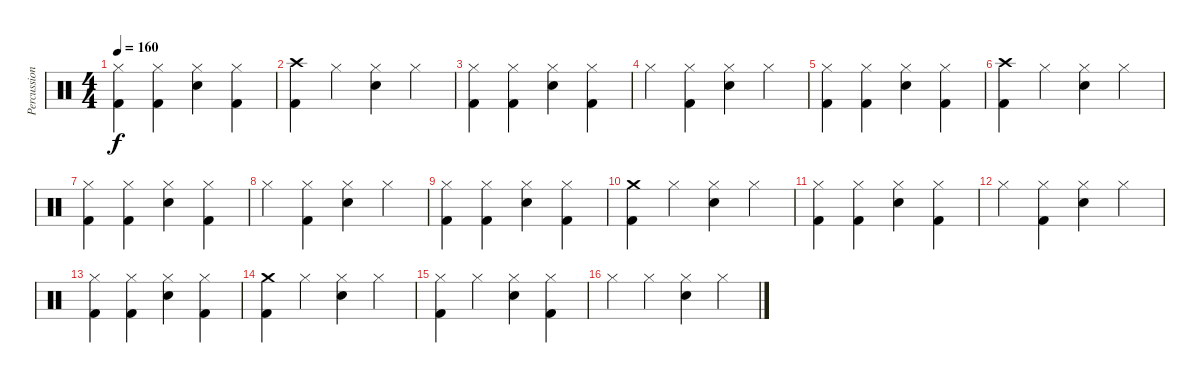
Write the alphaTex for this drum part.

\track ("Percussion" "Percussion") {instrument percussion}
\staff {score}
\articulation defaults
\ts (4 4)
\tempo 160
\clef neutral
\ks c
("Hi-Hat (closed)" "Kick (hit) 2").4{dy f} ("Hi-Hat (closed)" "Kick (hit) 2").4 ("Hi-Hat (closed)" "Snare (hit) 2").4 ("Hi-Hat (closed)" "Kick (hit) 2").4 |
("Crash high (hit)" "Kick (hit) 2").4 "Hi-Hat (closed)".4 ("Hi-Hat (closed)" "Snare (hit) 2").4 "Hi-Hat (closed)".4 |
("Hi-Hat (closed)" "Kick (hit) 2").4 ("Hi-Hat (closed)" "Kick (hit) 2").4 ("Hi-Hat (closed)" "Snare (hit) 2").4 ("Hi-Hat (closed)" "Kick (hit) 2").4 |
"Hi-Hat (closed)".4 ("Hi-Hat (closed)" "Kick (hit) 2").4 ("Hi-Hat (closed)" "Snare (hit) 2").4 "Hi-Hat (closed)".4 |
("Hi-Hat (closed)" "Kick (hit) 2").4 ("Hi-Hat (closed)" "Kick (hit) 2").4 ("Hi-Hat (closed)" "Snare (hit) 2").4 ("Hi-Hat (closed)" "Kick (hit) 2").4 |
("Crash high (hit)" "Kick (hit) 2").4 "Hi-Hat (closed)".4 ("Hi-Hat (closed)" "Snare (hit) 2").4 "Hi-Hat (closed)".4 |
("Hi-Hat (closed)" "Kick (hit) 2").4 ("Hi-Hat (closed)" "Kick (hit) 2").4 ("Hi-Hat (closed)" "Snare (hit) 2").4 ("Hi-Hat (closed)" "Kick (hit) 2").4 |
"Hi-Hat (closed)".4 ("Hi-Hat (closed)" "Kick (hit) 2").4 ("Hi-Hat (closed)" "Snare (hit) 2").4 "Hi-Hat (closed)".4 |
("Hi-Hat (closed)" "Kick (hit) 2").4 ("Hi-Hat (closed)" "Kick (hit) 2").4 ("Hi-Hat (closed)" "Snare (hit) 2").4 ("Hi-Hat (closed)" "Kick (hit) 2").4 |
("Crash medium (hit)" "Kick (hit) 2").4 "Hi-Hat (closed)".4 ("Hi-Hat (closed)" "Snare (hit) 2").4 "Hi-Hat (closed)".4 |
("Hi-Hat (closed)" "Kick (hit) 2").4 ("Hi-Hat (closed)" "Kick (hit) 2").4 ("Hi-Hat (closed)" "Snare (hit) 2").4 ("Hi-Hat (closed)" "Kick (hit) 2").4 |
"Hi-Hat (closed)".4 ("Hi-Hat (closed)" "Kick (hit) 2").4 ("Hi-Hat (closed)" "Snare (hit) 2").4 "Hi-Hat (closed)".4 |
("Hi-Hat (closed)" "Kick (hit) 2").4 ("Hi-Hat (closed)" "Kick (hit) 2").4 ("Hi-Hat (closed)" "Snare (hit) 2").4 ("Hi-Hat (closed)" "Kick (hit) 2").4 |
("Crash medium (hit)" "Kick (hit) 2").4 "Hi-Hat (closed)".4 ("Hi-Hat (closed)" "Snare (hit) 2").4 "Hi-Hat (closed)".4 |
("Hi-Hat (closed)" "Kick (hit) 2").4 "Hi-Hat (closed)".4 ("Hi-Hat (closed)" "Snare (hit) 2").4 ("Hi-Hat (closed)" "Kick (hit) 2").4 |
"Hi-Hat (closed)".4 "Hi-Hat (closed)".4 ("Hi-Hat (closed)" "Snare (hit) 2").4 "Hi-Hat (closed)".4
